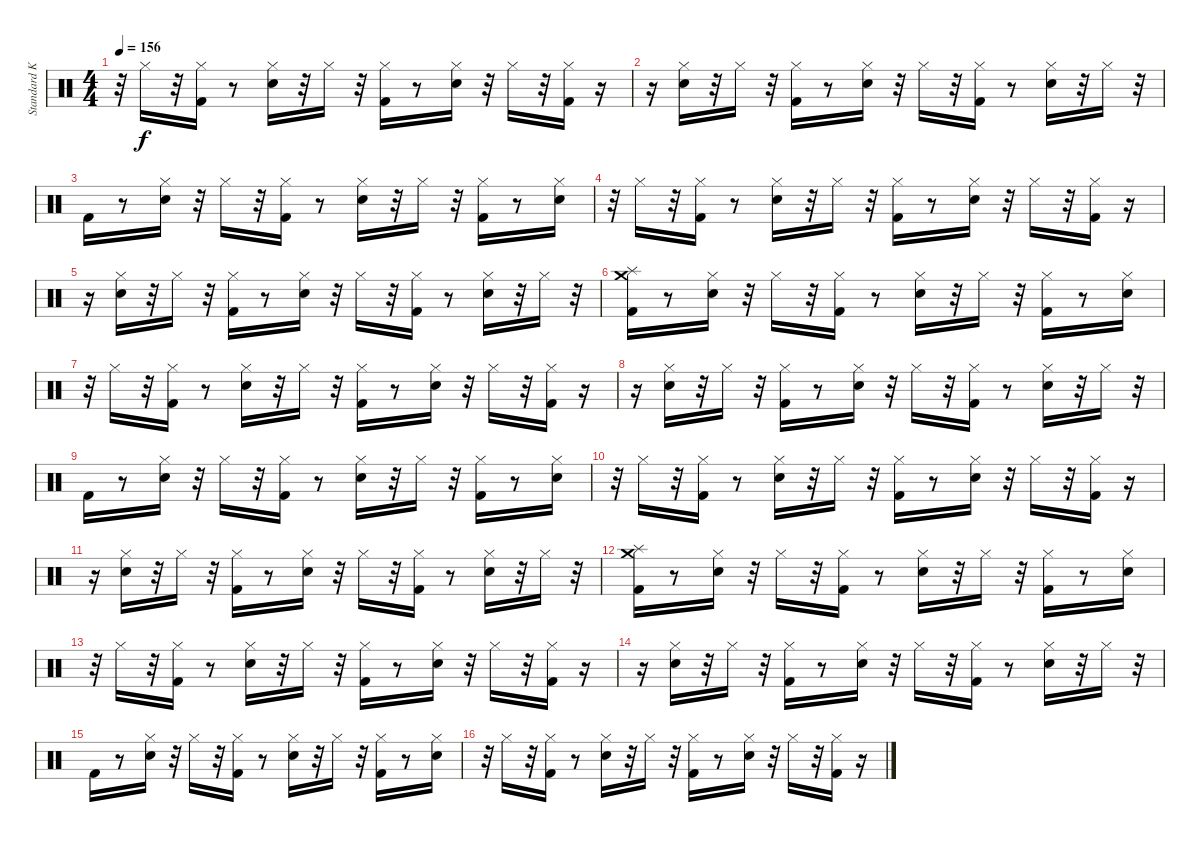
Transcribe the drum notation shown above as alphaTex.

\track ("Standard Kit" "Standard K") {instrument percussion}
\staff {score}
\articulation defaults
\ts (4 4)
\tempo 156
\clef neutral
\ks c
r.32{dy f} "Hi-Hat (closed)".16 r.32 ("Kick (hit) 2" "Hi-Hat (closed)").16 r.8 ("Electric Snare (hit)" "Hi-Hat (closed)").16 r.32 "Hi-Hat (closed)".16 r.32 ("Kick (hit) 2" "Hi-Hat (closed)").16 r.8 ("Electric Snare (hit)" "Hi-Hat (closed)").16 r.32 "Hi-Hat (closed)".16 r.32 ("Kick (hit) 2" "Hi-Hat (closed)").16 r.16 |
r.16 ("Electric Snare (hit)" "Hi-Hat (closed)").16 r.32 "Hi-Hat (closed)".16 r.32 ("Kick (hit) 2" "Hi-Hat (closed)").16 r.8 ("Electric Snare (hit)" "Hi-Hat (closed)").16 r.32 "Hi-Hat (closed)".16 r.32 ("Kick (hit) 2" "Hi-Hat (closed)").16 r.8 ("Electric Snare (hit)" "Hi-Hat (closed)").16 r.32 "Hi-Hat (closed)".16 r.32 |
"Kick (hit) 2".16 r.8 ("Electric Snare (hit)" "Hi-Hat (closed)").16 r.32 "Hi-Hat (closed)".16 r.32 ("Kick (hit) 2" "Hi-Hat (closed)").16 r.8 ("Electric Snare (hit)" "Hi-Hat (closed)").16 r.32 "Hi-Hat (closed)".16 r.32 ("Kick (hit) 2" "Hi-Hat (closed)").16 r.8 ("Electric Snare (hit)" "Hi-Hat (closed)").16 |
r.32 "Hi-Hat (closed)".16 r.32 ("Kick (hit) 2" "Hi-Hat (closed)").16 r.8 ("Electric Snare (hit)" "Hi-Hat (closed)").16 r.32 "Hi-Hat (closed)".16 r.32 ("Kick (hit) 2" "Hi-Hat (closed)").16 r.8 ("Electric Snare (hit)" "Hi-Hat (closed)").16 r.32 "Hi-Hat (closed)".16 r.32 ("Kick (hit) 2" "Hi-Hat (closed)").16 r.16 |
r.16 ("Electric Snare (hit)" "Hi-Hat (closed)").16 r.32 "Hi-Hat (closed)".16 r.32 ("Kick (hit) 2" "Hi-Hat (closed)").16 r.8 ("Electric Snare (hit)" "Hi-Hat (closed)").16 r.32 "Hi-Hat (closed)".16 r.32 ("Kick (hit) 2" "Hi-Hat (closed)").16 r.8 ("Electric Snare (hit)" "Hi-Hat (closed)").16 r.32 "Hi-Hat (closed)".16 r.32 |
("Kick (hit) 2" "Splash (hit)" "Crash medium (hit)").16 r.8 ("Electric Snare (hit)" "Hi-Hat (closed)").16 r.32 "Hi-Hat (closed)".16 r.32 ("Kick (hit) 2" "Hi-Hat (closed)").16 r.8 ("Electric Snare (hit)" "Hi-Hat (closed)").16 r.32 "Hi-Hat (closed)".16 r.32 ("Kick (hit) 2" "Hi-Hat (closed)").16 r.8 ("Electric Snare (hit)" "Hi-Hat (closed)").16 |
r.32 "Hi-Hat (closed)".16 r.32 ("Kick (hit) 2" "Hi-Hat (closed)").16 r.8 ("Electric Snare (hit)" "Hi-Hat (closed)").16 r.32 "Hi-Hat (closed)".16 r.32 ("Kick (hit) 2" "Hi-Hat (closed)").16 r.8 ("Electric Snare (hit)" "Hi-Hat (closed)").16 r.32 "Hi-Hat (closed)".16 r.32 ("Kick (hit) 2" "Hi-Hat (closed)").16 r.16 |
r.16 ("Electric Snare (hit)" "Hi-Hat (closed)").16 r.32 "Hi-Hat (closed)".16 r.32 ("Kick (hit) 2" "Hi-Hat (closed)").16 r.8 ("Electric Snare (hit)" "Hi-Hat (closed)").16 r.32 "Hi-Hat (closed)".16 r.32 ("Kick (hit) 2" "Hi-Hat (closed)").16 r.8 ("Electric Snare (hit)" "Hi-Hat (closed)").16 r.32 "Hi-Hat (closed)".16 r.32 |
"Kick (hit) 2".16 r.8 ("Electric Snare (hit)" "Hi-Hat (closed)").16 r.32 "Hi-Hat (closed)".16 r.32 ("Kick (hit) 2" "Hi-Hat (closed)").16 r.8 ("Electric Snare (hit)" "Hi-Hat (closed)").16 r.32 "Hi-Hat (closed)".16 r.32 ("Kick (hit) 2" "Hi-Hat (closed)").16 r.8 ("Electric Snare (hit)" "Hi-Hat (closed)").16 |
r.32 "Hi-Hat (closed)".16 r.32 ("Kick (hit) 2" "Hi-Hat (closed)").16 r.8 ("Electric Snare (hit)" "Hi-Hat (closed)").16 r.32 "Hi-Hat (closed)".16 r.32 ("Kick (hit) 2" "Hi-Hat (closed)").16 r.8 ("Electric Snare (hit)" "Hi-Hat (closed)").16 r.32 "Hi-Hat (closed)".16 r.32 ("Kick (hit) 2" "Hi-Hat (closed)").16 r.16 |
r.16 ("Electric Snare (hit)" "Hi-Hat (closed)").16 r.32 "Hi-Hat (closed)".16 r.32 ("Kick (hit) 2" "Hi-Hat (closed)").16 r.8 ("Electric Snare (hit)" "Hi-Hat (closed)").16 r.32 "Hi-Hat (closed)".16 r.32 ("Kick (hit) 2" "Hi-Hat (closed)").16 r.8 ("Electric Snare (hit)" "Hi-Hat (closed)").16 r.32 "Hi-Hat (closed)".16 r.32 |
("Kick (hit) 2" "Splash (hit)" "Crash medium (hit)").16 r.8 ("Electric Snare (hit)" "Hi-Hat (closed)").16 r.32 "Hi-Hat (closed)".16 r.32 ("Kick (hit) 2" "Hi-Hat (closed)").16 r.8 ("Electric Snare (hit)" "Hi-Hat (closed)").16 r.32 "Hi-Hat (closed)".16 r.32 ("Kick (hit) 2" "Hi-Hat (closed)").16 r.8 ("Electric Snare (hit)" "Hi-Hat (closed)").16 |
r.32 "Hi-Hat (closed)".16 r.32 ("Kick (hit) 2" "Hi-Hat (closed)").16 r.8 ("Electric Snare (hit)" "Hi-Hat (closed)").16 r.32 "Hi-Hat (closed)".16 r.32 ("Kick (hit) 2" "Hi-Hat (closed)").16 r.8 ("Electric Snare (hit)" "Hi-Hat (closed)").16 r.32 "Hi-Hat (closed)".16 r.32 ("Kick (hit) 2" "Hi-Hat (closed)").16 r.16 |
r.16 ("Electric Snare (hit)" "Hi-Hat (closed)").16 r.32 "Hi-Hat (closed)".16 r.32 ("Kick (hit) 2" "Hi-Hat (closed)").16 r.8 ("Electric Snare (hit)" "Hi-Hat (closed)").16 r.32 "Hi-Hat (closed)".16 r.32 ("Kick (hit) 2" "Hi-Hat (closed)").16 r.8 ("Electric Snare (hit)" "Hi-Hat (closed)").16 r.32 "Hi-Hat (closed)".16 r.32 |
"Kick (hit) 2".16 r.8 ("Electric Snare (hit)" "Hi-Hat (closed)").16 r.32 "Hi-Hat (closed)".16 r.32 ("Kick (hit) 2" "Hi-Hat (closed)").16 r.8 ("Electric Snare (hit)" "Hi-Hat (closed)").16 r.32 "Hi-Hat (closed)".16 r.32 ("Kick (hit) 2" "Hi-Hat (closed)").16 r.8 ("Electric Snare (hit)" "Hi-Hat (closed)").16 |
r.32 "Hi-Hat (closed)".16 r.32 ("Kick (hit) 2" "Hi-Hat (closed)").16 r.8 ("Electric Snare (hit)" "Hi-Hat (closed)").16 r.32 "Hi-Hat (closed)".16 r.32 ("Kick (hit) 2" "Hi-Hat (closed)").16 r.8 ("Electric Snare (hit)" "Hi-Hat (closed)").16 r.32 "Hi-Hat (closed)".16 r.32 ("Kick (hit) 2" "Hi-Hat (closed)").16 r.16
